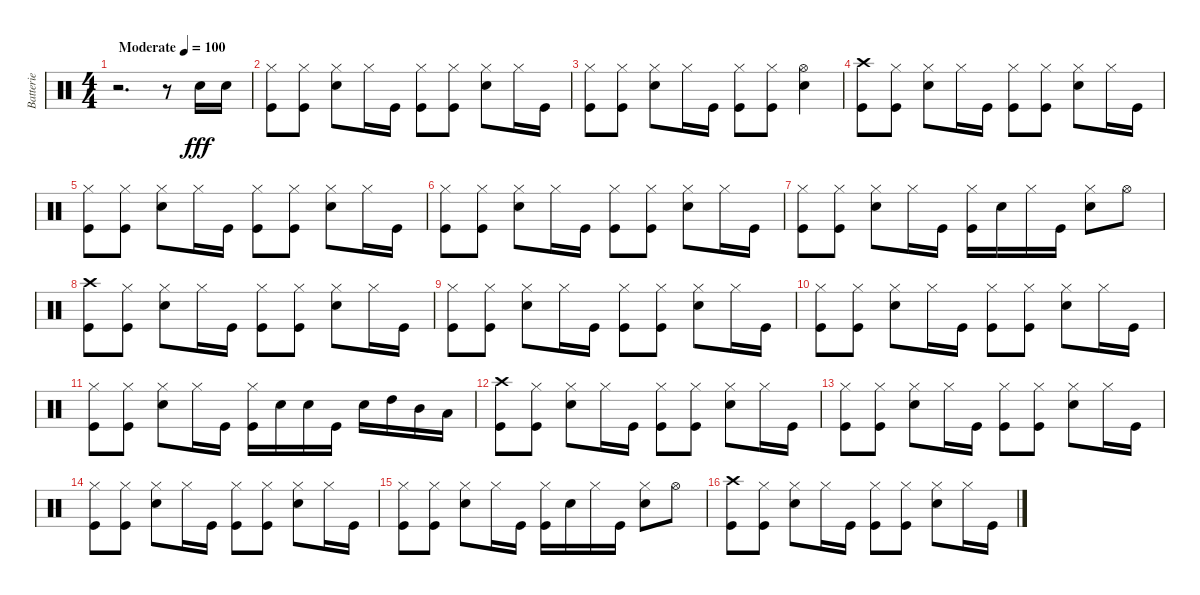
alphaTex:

\track ("Batterie" "Batterie") {instrument percussion}
\staff {score}
\articulation defaults
\ts (4 4)
\tempo (100 "Moderate")
\clef neutral
\ks c
r.2{d dy fff} r.8 "Electric Snare (hit)".16 "Electric Snare (hit)".16 |
("Hi-Hat (closed)" "Kick (hit)").8 ("Hi-Hat (closed)" "Kick (hit)").8 ("Hi-Hat (closed)" "Electric Snare (hit)").8 "Hi-Hat (closed)".16 "Kick (hit)".16 ("Hi-Hat (closed)" "Kick (hit)").8 ("Hi-Hat (closed)" "Kick (hit)").8 ("Hi-Hat (closed)" "Electric Snare (hit)").8 "Hi-Hat (closed)".16 "Kick (hit)".16 |
("Hi-Hat (closed)" "Kick (hit)").8 ("Hi-Hat (closed)" "Kick (hit)").8 ("Hi-Hat (closed)" "Electric Snare (hit)").8 "Hi-Hat (closed)".16 "Kick (hit)".16 ("Hi-Hat (closed)" "Kick (hit)").8 ("Hi-Hat (closed)" "Kick (hit)").8 ("Hi-Hat (open)" "Electric Snare (hit)").4 |
("Crash high (hit)" "Kick (hit)").8 ("Hi-Hat (closed)" "Kick (hit)").8 ("Hi-Hat (closed)" "Electric Snare (hit)").8 "Hi-Hat (closed)".16 "Kick (hit)".16 ("Hi-Hat (closed)" "Kick (hit)").8 ("Hi-Hat (closed)" "Kick (hit)").8 ("Hi-Hat (closed)" "Electric Snare (hit)").8 "Hi-Hat (closed)".16 "Kick (hit)".16 |
("Hi-Hat (closed)" "Kick (hit)").8 ("Hi-Hat (closed)" "Kick (hit)").8 ("Hi-Hat (closed)" "Electric Snare (hit)").8 "Hi-Hat (closed)".16 "Kick (hit)".16 ("Hi-Hat (closed)" "Kick (hit)").8 ("Hi-Hat (closed)" "Kick (hit)").8 ("Hi-Hat (closed)" "Electric Snare (hit)").8 "Hi-Hat (closed)".16 "Kick (hit)".16 |
("Hi-Hat (closed)" "Kick (hit)").8 ("Hi-Hat (closed)" "Kick (hit)").8 ("Hi-Hat (closed)" "Electric Snare (hit)").8 "Hi-Hat (closed)".16 "Kick (hit)".16 ("Hi-Hat (closed)" "Kick (hit)").8 ("Hi-Hat (closed)" "Kick (hit)").8 ("Hi-Hat (closed)" "Electric Snare (hit)").8 "Hi-Hat (closed)".16 "Kick (hit)".16 |
("Hi-Hat (closed)" "Kick (hit)").8 ("Hi-Hat (closed)" "Kick (hit)").8 ("Hi-Hat (closed)" "Electric Snare (hit)").8 "Hi-Hat (closed)".16 "Kick (hit)".16 ("Hi-Hat (closed)" "Kick (hit)").16 "Electric Snare (hit)".16 "Hi-Hat (closed)".16 "Kick (hit)".16 ("Hi-Hat (closed)" "Electric Snare (hit)").8 "Hi-Hat (open)".8 |
("Crash high (hit)" "Kick (hit)").8 ("Hi-Hat (closed)" "Kick (hit)").8 ("Hi-Hat (closed)" "Electric Snare (hit)").8 "Hi-Hat (closed)".16 "Kick (hit)".16 ("Hi-Hat (closed)" "Kick (hit)").8 ("Hi-Hat (closed)" "Kick (hit)").8 ("Hi-Hat (closed)" "Electric Snare (hit)").8 "Hi-Hat (closed)".16 "Kick (hit)".16 |
("Hi-Hat (closed)" "Kick (hit)").8 ("Hi-Hat (closed)" "Kick (hit)").8 ("Hi-Hat (closed)" "Electric Snare (hit)").8 "Hi-Hat (closed)".16 "Kick (hit)".16 ("Hi-Hat (closed)" "Kick (hit)").8 ("Hi-Hat (closed)" "Kick (hit)").8 ("Hi-Hat (closed)" "Electric Snare (hit)").8 "Hi-Hat (closed)".16 "Kick (hit)".16 |
("Hi-Hat (closed)" "Kick (hit)").8 ("Hi-Hat (closed)" "Kick (hit)").8 ("Hi-Hat (closed)" "Electric Snare (hit)").8 "Hi-Hat (closed)".16 "Kick (hit)".16 ("Hi-Hat (closed)" "Kick (hit)").8 ("Hi-Hat (closed)" "Kick (hit)").8 ("Hi-Hat (closed)" "Electric Snare (hit)").8 "Hi-Hat (closed)".16 "Kick (hit)".16 |
("Hi-Hat (closed)" "Kick (hit)").8 ("Hi-Hat (closed)" "Kick (hit)").8 ("Hi-Hat (closed)" "Electric Snare (hit)").8 "Hi-Hat (closed)".16 "Kick (hit)".16 ("Hi-Hat (closed)" "Kick (hit)").16 "Electric Snare (hit)".16 "Electric Snare (hit)".16 "Kick (hit)".16 "Electric Snare (hit)".16 "High Tom (hit)".16 "Mid Tom (hit)".16 "Low Floor Tom (hit)".16 |
("Crash high (hit)" "Kick (hit)").8 ("Hi-Hat (closed)" "Kick (hit)").8 ("Hi-Hat (closed)" "Electric Snare (hit)").8 "Hi-Hat (closed)".16 "Kick (hit)".16 ("Hi-Hat (closed)" "Kick (hit)").8 ("Hi-Hat (closed)" "Kick (hit)").8 ("Hi-Hat (closed)" "Electric Snare (hit)").8 "Hi-Hat (closed)".16 "Kick (hit)".16 |
("Hi-Hat (closed)" "Kick (hit)").8 ("Hi-Hat (closed)" "Kick (hit)").8 ("Hi-Hat (closed)" "Electric Snare (hit)").8 "Hi-Hat (closed)".16 "Kick (hit)".16 ("Hi-Hat (closed)" "Kick (hit)").8 ("Hi-Hat (closed)" "Kick (hit)").8 ("Hi-Hat (closed)" "Electric Snare (hit)").8 "Hi-Hat (closed)".16 "Kick (hit)".16 |
("Hi-Hat (closed)" "Kick (hit)").8 ("Hi-Hat (closed)" "Kick (hit)").8 ("Hi-Hat (closed)" "Electric Snare (hit)").8 "Hi-Hat (closed)".16 "Kick (hit)".16 ("Hi-Hat (closed)" "Kick (hit)").8 ("Hi-Hat (closed)" "Kick (hit)").8 ("Hi-Hat (closed)" "Electric Snare (hit)").8 "Hi-Hat (closed)".16 "Kick (hit)".16 |
("Hi-Hat (closed)" "Kick (hit)").8 ("Hi-Hat (closed)" "Kick (hit)").8 ("Hi-Hat (closed)" "Electric Snare (hit)").8 "Hi-Hat (closed)".16 "Kick (hit)".16 ("Hi-Hat (closed)" "Kick (hit)").16 "Electric Snare (hit)".16 "Hi-Hat (closed)".16 "Kick (hit)".16 ("Hi-Hat (closed)" "Electric Snare (hit)").8 "Hi-Hat (open)".8 |
("Crash high (hit)" "Kick (hit)").8 ("Hi-Hat (closed)" "Kick (hit)").8 ("Hi-Hat (closed)" "Electric Snare (hit)").8 "Hi-Hat (closed)".16 "Kick (hit)".16 ("Hi-Hat (closed)" "Kick (hit)").8 ("Hi-Hat (closed)" "Kick (hit)").8 ("Hi-Hat (closed)" "Electric Snare (hit)").8 "Hi-Hat (closed)".16 "Kick (hit)".16
